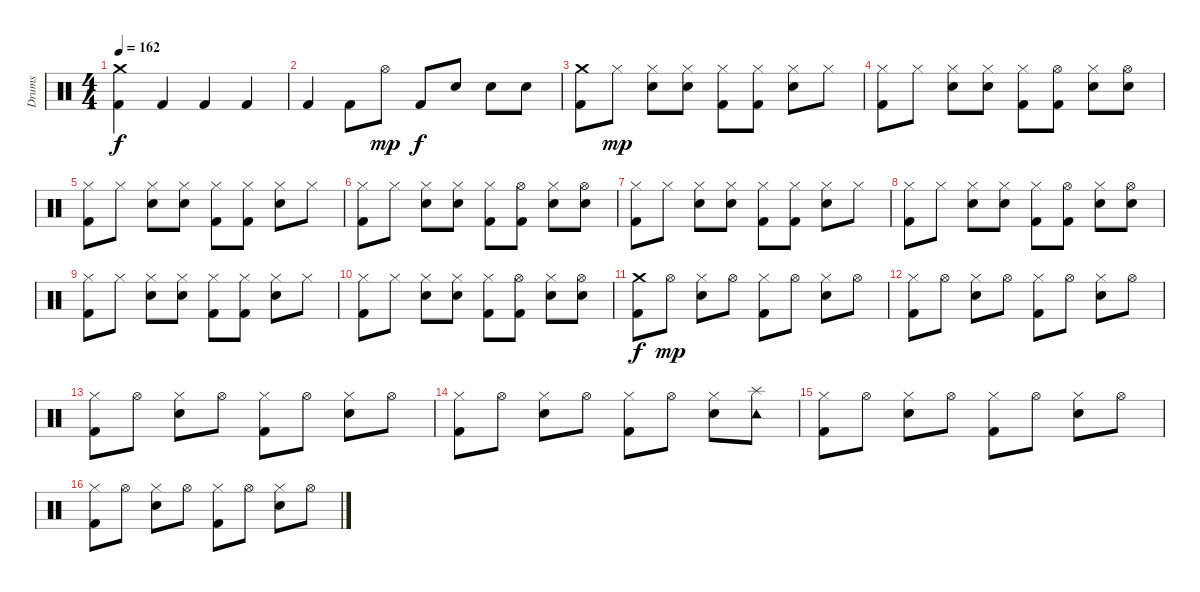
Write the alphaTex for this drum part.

\track ("Drums" "Drums") {instrument percussion}
\staff {score}
\articulation defaults
\ts (4 4)
\tempo 162
\clef neutral
\ks c
("Crash medium (hit)" "Kick (hit) 2").4{dy f} "Kick (hit) 2".4 "Kick (hit) 2".4 "Kick (hit) 2".4 |
"Kick (hit) 2".4 "Kick (hit) 2".8 "Hi-Hat (open)".8{dy mp} "Kick (hit) 2".8{dy f} "Snare (hit) 2".8 "Snare (hit) 2".8 "Snare (hit) 2".8 |
("Crash medium (hit)" "Kick (hit) 2").8 "Hi-Hat (closed)".8{dy mp} ("Hi-Hat (closed)" "Snare (hit) 2").8 ("Hi-Hat (closed)" "Snare (hit) 2").8 ("Hi-Hat (closed)" "Kick (hit) 2").8 ("Hi-Hat (closed)" "Kick (hit) 2").8 ("Hi-Hat (closed)" "Snare (hit) 2").8 "Hi-Hat (closed)".8 |
("Hi-Hat (closed)" "Kick (hit) 2").8 "Hi-Hat (closed)".8 ("Hi-Hat (closed)" "Snare (hit) 2").8 ("Hi-Hat (closed)" "Snare (hit) 2").8 ("Hi-Hat (closed)" "Kick (hit) 2").8 ("Hi-Hat (open)" "Kick (hit) 2").8 ("Hi-Hat (closed)" "Snare (hit) 2").8 ("Hi-Hat (open)" "Snare (hit) 2").8 |
("Hi-Hat (closed)" "Kick (hit) 2").8 "Hi-Hat (closed)".8 ("Hi-Hat (closed)" "Snare (hit) 2").8 ("Hi-Hat (closed)" "Snare (hit) 2").8 ("Hi-Hat (closed)" "Kick (hit) 2").8 ("Hi-Hat (closed)" "Kick (hit) 2").8 ("Hi-Hat (closed)" "Snare (hit) 2").8 "Hi-Hat (closed)".8 |
("Hi-Hat (closed)" "Kick (hit) 2").8 "Hi-Hat (closed)".8 ("Hi-Hat (closed)" "Snare (hit) 2").8 ("Hi-Hat (closed)" "Snare (hit) 2").8 ("Hi-Hat (closed)" "Kick (hit) 2").8 ("Hi-Hat (open)" "Kick (hit) 2").8 ("Hi-Hat (closed)" "Snare (hit) 2").8 ("Hi-Hat (open)" "Snare (hit) 2").8 |
("Hi-Hat (closed)" "Kick (hit) 2").8 "Hi-Hat (closed)".8 ("Hi-Hat (closed)" "Snare (hit) 2").8 ("Hi-Hat (closed)" "Snare (hit) 2").8 ("Hi-Hat (closed)" "Kick (hit) 2").8 ("Hi-Hat (closed)" "Kick (hit) 2").8 ("Hi-Hat (closed)" "Snare (hit) 2").8 "Hi-Hat (closed)".8 |
("Hi-Hat (closed)" "Kick (hit) 2").8 "Hi-Hat (closed)".8 ("Hi-Hat (closed)" "Snare (hit) 2").8 ("Hi-Hat (closed)" "Snare (hit) 2").8 ("Hi-Hat (closed)" "Kick (hit) 2").8 ("Hi-Hat (open)" "Kick (hit) 2").8 ("Hi-Hat (closed)" "Snare (hit) 2").8 ("Hi-Hat (open)" "Snare (hit) 2").8 |
("Hi-Hat (closed)" "Kick (hit) 2").8 "Hi-Hat (closed)".8 ("Hi-Hat (closed)" "Snare (hit) 2").8 ("Hi-Hat (closed)" "Snare (hit) 2").8 ("Hi-Hat (closed)" "Kick (hit) 2").8 ("Hi-Hat (closed)" "Kick (hit) 2").8 ("Hi-Hat (closed)" "Snare (hit) 2").8 "Hi-Hat (closed)".8 |
("Hi-Hat (closed)" "Kick (hit) 2").8 "Hi-Hat (closed)".8 ("Hi-Hat (closed)" "Snare (hit) 2").8 ("Hi-Hat (closed)" "Snare (hit) 2").8 ("Hi-Hat (closed)" "Kick (hit) 2").8 ("Hi-Hat (open)" "Kick (hit) 2").8 ("Hi-Hat (closed)" "Snare (hit) 2").8 ("Hi-Hat (open)" "Snare (hit) 2").8 |
("Crash medium (hit)" "Kick (hit) 2").8{dy f} "Hi-Hat (open)".8{dy mp} ("Hi-Hat (closed)" "Snare (hit) 2").8 "Hi-Hat (open)".8 ("Hi-Hat (closed)" "Kick (hit) 2").8 "Hi-Hat (open)".8 ("Hi-Hat (closed)" "Snare (hit) 2").8 "Hi-Hat (open)".8 |
("Hi-Hat (closed)" "Kick (hit) 2").8 "Hi-Hat (open)".8 ("Hi-Hat (closed)" "Snare (hit) 2").8 "Hi-Hat (open)".8 ("Hi-Hat (closed)" "Kick (hit) 2").8 "Hi-Hat (open)".8 ("Hi-Hat (closed)" "Snare (hit) 2").8 "Hi-Hat (open)".8 |
("Hi-Hat (closed)" "Kick (hit) 2").8 "Hi-Hat (open)".8 ("Hi-Hat (closed)" "Snare (hit) 2").8 "Hi-Hat (open)".8 ("Hi-Hat (closed)" "Kick (hit) 2").8 "Hi-Hat (open)".8 ("Hi-Hat (closed)" "Snare (hit) 2").8 "Hi-Hat (open)".8 |
("Hi-Hat (closed)" "Kick (hit) 2").8 "Hi-Hat (open)".8 ("Hi-Hat (closed)" "Snare (hit) 2").8 "Hi-Hat (open)".8 ("Hi-Hat (closed)" "Kick (hit) 2").8 "Hi-Hat (open)".8 ("Hi-Hat (closed)" "Snare (hit) 2").8 ("Splash (hit)" "Tambourine (hit)").8 |
("Hi-Hat (closed)" "Kick (hit) 2").8 "Hi-Hat (open)".8 ("Hi-Hat (closed)" "Snare (hit) 2").8 "Hi-Hat (open)".8 ("Hi-Hat (closed)" "Kick (hit) 2").8 "Hi-Hat (open)".8 ("Hi-Hat (closed)" "Snare (hit) 2").8 "Hi-Hat (open)".8 |
("Hi-Hat (closed)" "Kick (hit) 2").8 "Hi-Hat (open)".8 ("Hi-Hat (closed)" "Snare (hit) 2").8 "Hi-Hat (open)".8 ("Hi-Hat (closed)" "Kick (hit) 2").8 "Hi-Hat (open)".8 ("Hi-Hat (closed)" "Snare (hit) 2").8 "Hi-Hat (open)".8
